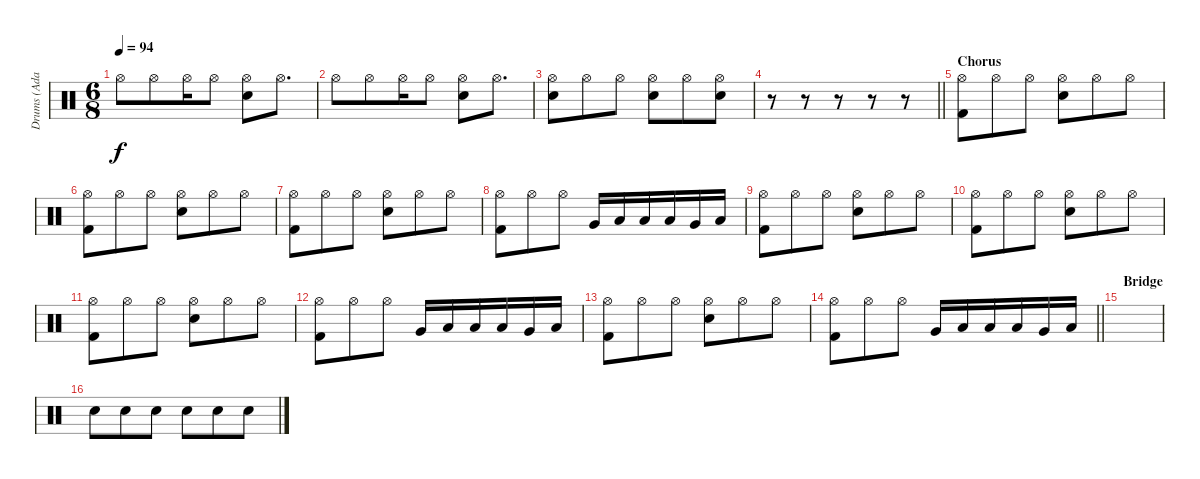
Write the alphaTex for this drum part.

\track ("Drums (Adam)" "Drums (Ada") {instrument percussion}
\staff {score}
\articulation defaults
\ts (6 8)
\tempo 94
\clef neutral
\ks c "Hi-Hat (open)".8{dy f} "Hi-Hat (open)".8 "Hi-Hat (open)".16 "Hi-Hat (open)".8
("Hi-Hat (open)" "Snare (hit) 2").8 "Hi-Hat (open)".8{d} |
"Hi-Hat (open)".8 "Hi-Hat (open)".8 "Hi-Hat (open)".16 "Hi-Hat (open)".8 ("Hi-Hat (open)" "Snare (hit) 2").8 "Hi-Hat (open)".8{d} |
("Hi-Hat (open)" "Snare (hit) 2").8 "Hi-Hat (open)".8 "Hi-Hat (open)".8 ("Hi-Hat (open)" "Snare (hit) 2").8 "Hi-Hat (open)".8 ("Hi-Hat (open)" "Snare (hit) 2").8 |
\barLineRight lightlight
r.8 r.8 r.8 r.8 r.8 |
\section ("" "Chorus")
("Hi-Hat (open)" "Kick (hit) 2").8 "Hi-Hat (open)".8 "Hi-Hat (open)".8 ("Hi-Hat (open)" "Snare (hit) 2").8 "Hi-Hat (open)".8 "Hi-Hat (open)".8 |
("Hi-Hat (open)" "Kick (hit) 2").8 "Hi-Hat (open)".8 "Hi-Hat (open)".8 ("Hi-Hat (open)" "Snare (hit) 2").8 "Hi-Hat (open)".8 "Hi-Hat (open)".8 |
("Hi-Hat (open)" "Kick (hit) 2").8 "Hi-Hat (open)".8 "Hi-Hat (open)".8 ("Hi-Hat (open)" "Snare (hit) 2").8 "Hi-Hat (open)".8 "Hi-Hat (open)".8 |
("Hi-Hat (open)" "Kick (hit) 2").8 "Hi-Hat (open)".8 "Hi-Hat (open)".8 "Very Low Tom (hit)".16 "Low Floor Tom (hit)".16 "Low Tom (hit)".16 "Low Floor Tom (hit)".16 "Very Low Tom (hit)".16 "Low Floor Tom (hit)".16 |
("Hi-Hat (open)" "Kick (hit) 2").8 "Hi-Hat (open)".8 "Hi-Hat (open)".8 ("Hi-Hat (open)" "Snare (hit) 2").8 "Hi-Hat (open)".8 "Hi-Hat (open)".8 |
("Hi-Hat (open)" "Kick (hit) 2").8 "Hi-Hat (open)".8 "Hi-Hat (open)".8 ("Hi-Hat (open)" "Snare (hit) 2").8 "Hi-Hat (open)".8 "Hi-Hat (open)".8 |
("Hi-Hat (open)" "Kick (hit) 2").8 "Hi-Hat (open)".8 "Hi-Hat (open)".8 ("Hi-Hat (open)" "Snare (hit) 2").8 "Hi-Hat (open)".8 "Hi-Hat (open)".8 |
("Hi-Hat (open)" "Kick (hit) 2").8 "Hi-Hat (open)".8 "Hi-Hat (open)".8 "Very Low Tom (hit)".16 "Low Floor Tom (hit)".16 "Low Tom (hit)".16 "Low Floor Tom (hit)".16 "Very Low Tom (hit)".16 "Low Floor Tom (hit)".16 |
("Hi-Hat (open)" "Kick (hit) 2").8 "Hi-Hat (open)".8 "Hi-Hat (open)".8 ("Hi-Hat (open)" "Snare (hit) 2").8 "Hi-Hat (open)".8 "Hi-Hat (open)".8 |
\barLineRight lightlight
("Hi-Hat (open)" "Kick (hit) 2").8 "Hi-Hat (open)".8 "Hi-Hat (open)".8 "Very Low Tom (hit)".16 "Low Floor Tom (hit)".16 "Low Tom (hit)".16 "Low Floor Tom (hit)".16 "Very Low Tom (hit)".16 "Low Floor Tom (hit)".16 |
\section ("" "Bridge")
|
"Snare (hit) 2".8 "Snare (hit) 2".8 "Snare (hit) 2".8 "Snare (hit) 2".8 "Snare (hit) 2".8 "Snare (hit) 2".8
